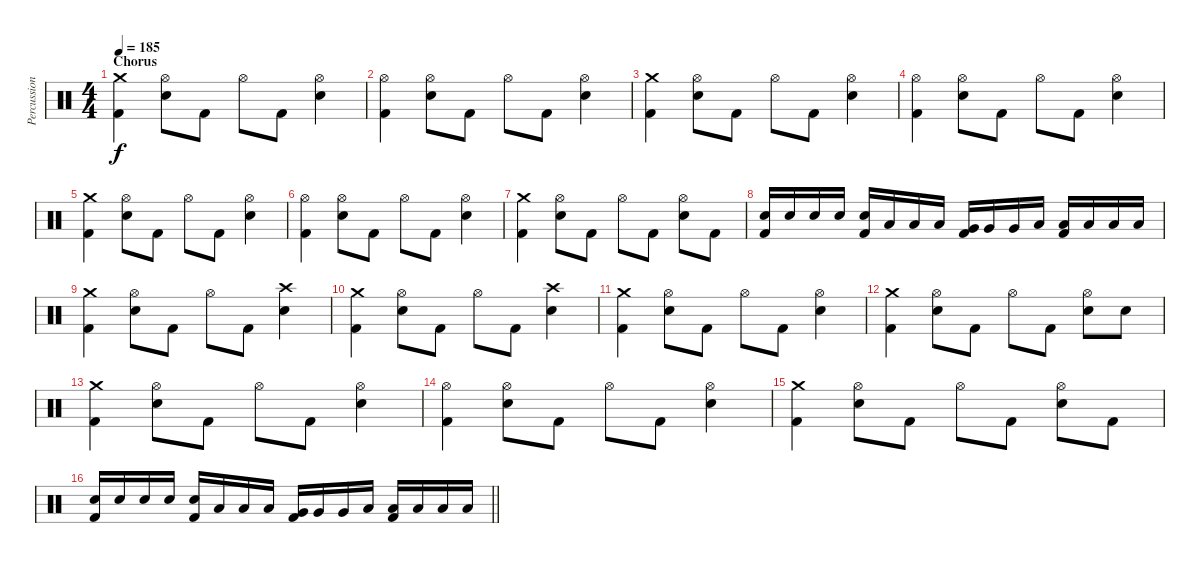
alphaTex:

\track ("Percussions" "Percussion") {instrument percussion}
\staff {score}
\articulation defaults
\ts (4 4)
\section ("" "Chorus")
\tempo 185
\clef neutral
\ks c
("Crash medium (hit)" "Kick (hit) 2").4{dy f} ("Hi-Hat (open)" "Electric Snare (hit)").8 "Kick (hit) 2".8 "Hi-Hat (open)".8 "Kick (hit) 2".8 ("Hi-Hat (open)" "Electric Snare (hit)").4 |
("Hi-Hat (open)" "Kick (hit) 2").4 ("Hi-Hat (open)" "Electric Snare (hit)").8 "Kick (hit) 2".8 "Hi-Hat (open)".8 "Kick (hit) 2".8 ("Hi-Hat (open)" "Electric Snare (hit)").4 |
("Crash medium (hit)" "Kick (hit) 2").4 ("Hi-Hat (open)" "Electric Snare (hit)").8 "Kick (hit) 2".8 "Hi-Hat (open)".8 "Kick (hit) 2".8 ("Hi-Hat (open)" "Electric Snare (hit)").4 |
("Hi-Hat (open)" "Kick (hit) 2").4 ("Hi-Hat (open)" "Electric Snare (hit)").8 "Kick (hit) 2".8 "Hi-Hat (open)".8 "Kick (hit) 2".8 ("Hi-Hat (open)" "Electric Snare (hit)").4 |
("Crash medium (hit)" "Kick (hit) 2").4 ("Hi-Hat (open)" "Electric Snare (hit)").8 "Kick (hit) 2".8 "Hi-Hat (open)".8 "Kick (hit) 2".8 ("Hi-Hat (open)" "Electric Snare (hit)").4 |
("Hi-Hat (open)" "Kick (hit) 2").4 ("Hi-Hat (open)" "Electric Snare (hit)").8 "Kick (hit) 2".8 "Hi-Hat (open)".8 "Kick (hit) 2".8 ("Hi-Hat (open)" "Electric Snare (hit)").4 |
("Crash medium (hit)" "Kick (hit) 2").4 ("Hi-Hat (open)" "Electric Snare (hit)").8 "Kick (hit) 2".8 "Hi-Hat (open)".8 "Kick (hit) 2".8 ("Hi-Hat (open)" "Electric Snare (hit)").8 "Kick (hit) 2".8 |
("Electric Snare (hit)" "Kick (hit) 2").16 "Electric Snare (hit)".16 "Electric Snare (hit)".16 "Electric Snare (hit)".16 ("Electric Snare (hit)" "Kick (hit) 2").16 "Low Tom (hit)".16 "Low Tom (hit)".16 "Low Tom (hit)".16 ("Very Low Tom (hit)" "Kick (hit) 2").16 "Very Low Tom (hit)".16 "Very Low Tom (hit)".16 "Low Floor Tom (hit)".16 ("Low Floor Tom (hit)" "Kick (hit) 2").16 "Low Floor Tom (hit)".16 "Low Floor Tom (hit)".16 "Low Floor Tom (hit)".16 |
("Crash medium (hit)" "Kick (hit) 2").4 ("Hi-Hat (open)" "Electric Snare (hit)").8 "Kick (hit) 2".8 "Hi-Hat (open)".8 "Kick (hit) 2".8 ("Crash high (hit)" "Electric Snare (hit)").4 |
("Crash medium (hit)" "Kick (hit) 2").4 ("Hi-Hat (open)" "Electric Snare (hit)").8 "Kick (hit) 2".8 "Hi-Hat (open)".8 "Kick (hit) 2".8 ("Crash high (hit)" "Electric Snare (hit)").4 |
("Crash medium (hit)" "Kick (hit) 2").4 ("Hi-Hat (open)" "Electric Snare (hit)").8 "Kick (hit) 2".8 "Hi-Hat (open)".8 "Kick (hit) 2".8 ("Hi-Hat (open)" "Electric Snare (hit)").4 |
("Crash medium (hit)" "Kick (hit) 2").4 ("Hi-Hat (open)" "Electric Snare (hit)").8 "Kick (hit) 2".8 "Hi-Hat (open)".8 "Kick (hit) 2".8 ("Hi-Hat (open)" "Electric Snare (hit)").8 "Electric Snare (hit)".8 |
("Crash medium (hit)" "Kick (hit) 2").4 ("Hi-Hat (open)" "Electric Snare (hit)").8 "Kick (hit) 2".8 "Hi-Hat (open)".8 "Kick (hit) 2".8 ("Hi-Hat (open)" "Electric Snare (hit)").4 |
("Hi-Hat (open)" "Kick (hit) 2").4 ("Hi-Hat (open)" "Electric Snare (hit)").8 "Kick (hit) 2".8 "Hi-Hat (open)".8 "Kick (hit) 2".8 ("Hi-Hat (open)" "Electric Snare (hit)").4 |
("Crash medium (hit)" "Kick (hit) 2").4 ("Hi-Hat (open)" "Electric Snare (hit)").8 "Kick (hit) 2".8 "Hi-Hat (open)".8 "Kick (hit) 2".8 ("Hi-Hat (open)" "Electric Snare (hit)").8 "Kick (hit) 2".8 |
\barLineRight lightlight
("Electric Snare (hit)" "Kick (hit) 2").16 "Electric Snare (hit)".16 "Electric Snare (hit)".16 "Electric Snare (hit)".16 ("Electric Snare (hit)" "Kick (hit) 2").16 "Low Tom (hit)".16 "Low Tom (hit)".16 "Low Tom (hit)".16 ("Very Low Tom (hit)" "Kick (hit) 2").16 "Very Low Tom (hit)".16 "Very Low Tom (hit)".16 "Low Floor Tom (hit)".16 ("Low Floor Tom (hit)" "Kick (hit) 2").16 "Low Floor Tom (hit)".16 "Low Floor Tom (hit)".16 "Low Floor Tom (hit)".16
